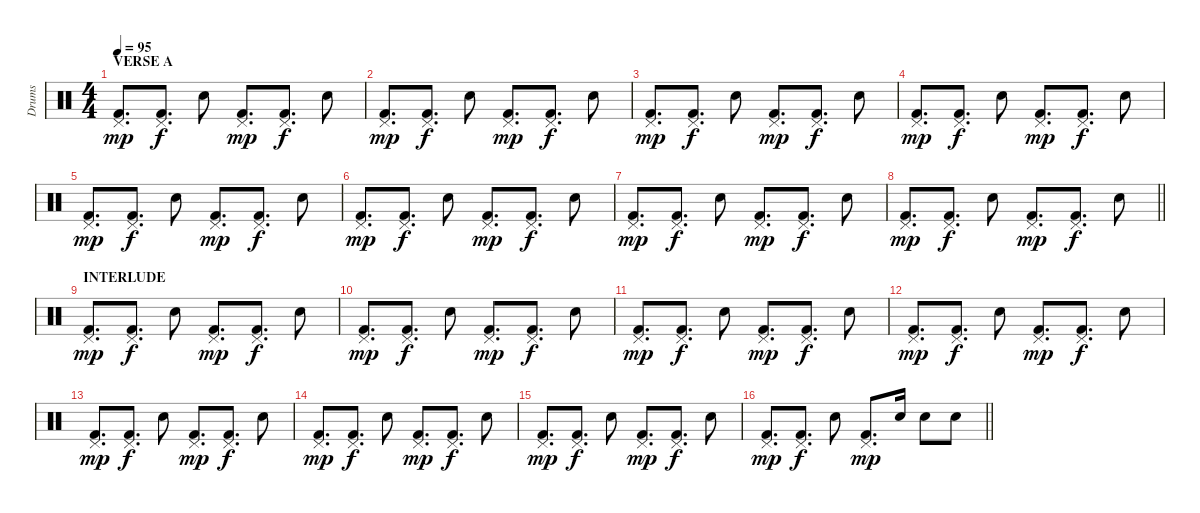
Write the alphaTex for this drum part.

\track ("Drums" "Drums") {instrument percussion}
\staff {score}
\articulation defaults
\ts (4 4)
\section ("" "VERSE A")
\tempo 95
\clef neutral
\ks c
("Pedal Hi-Hat (hit)" "Kick (hit) 2").8{d dy mp} ("Pedal Hi-Hat (hit)" "Kick (hit) 2").8{d dy f} "Snare (hit) 2".8 ("Pedal Hi-Hat (hit)" "Kick (hit) 2").8{d dy mp} ("Pedal Hi-Hat (hit)" "Kick (hit) 2").8{d dy f} "Snare (hit) 2".8 |
("Pedal Hi-Hat (hit)" "Kick (hit) 2").8{d dy mp} ("Pedal Hi-Hat (hit)" "Kick (hit) 2").8{d dy f} "Snare (hit) 2".8 ("Pedal Hi-Hat (hit)" "Kick (hit) 2").8{d dy mp} ("Pedal Hi-Hat (hit)" "Kick (hit) 2").8{d dy f} "Snare (hit) 2".8 |
("Pedal Hi-Hat (hit)" "Kick (hit) 2").8{d dy mp} ("Pedal Hi-Hat (hit)" "Kick (hit) 2").8{d dy f} "Snare (hit) 2".8 ("Pedal Hi-Hat (hit)" "Kick (hit) 2").8{d dy mp} ("Pedal Hi-Hat (hit)" "Kick (hit) 2").8{d dy f} "Snare (hit) 2".8 |
("Pedal Hi-Hat (hit)" "Kick (hit) 2").8{d dy mp} ("Pedal Hi-Hat (hit)" "Kick (hit) 2").8{d dy f} "Snare (hit) 2".8 ("Pedal Hi-Hat (hit)" "Kick (hit) 2").8{d dy mp} ("Pedal Hi-Hat (hit)" "Kick (hit) 2").8{d dy f} "Snare (hit) 2".8 |
("Pedal Hi-Hat (hit)" "Kick (hit) 2").8{d dy mp} ("Pedal Hi-Hat (hit)" "Kick (hit) 2").8{d dy f} "Snare (hit) 2".8 ("Pedal Hi-Hat (hit)" "Kick (hit) 2").8{d dy mp} ("Pedal Hi-Hat (hit)" "Kick (hit) 2").8{d dy f} "Snare (hit) 2".8 |
("Pedal Hi-Hat (hit)" "Kick (hit) 2").8{d dy mp} ("Pedal Hi-Hat (hit)" "Kick (hit) 2").8{d dy f} "Snare (hit) 2".8 ("Pedal Hi-Hat (hit)" "Kick (hit) 2").8{d dy mp} ("Pedal Hi-Hat (hit)" "Kick (hit) 2").8{d dy f} "Snare (hit) 2".8 |
("Pedal Hi-Hat (hit)" "Kick (hit) 2").8{d dy mp} ("Pedal Hi-Hat (hit)" "Kick (hit) 2").8{d dy f} "Snare (hit) 2".8 ("Pedal Hi-Hat (hit)" "Kick (hit) 2").8{d dy mp} ("Pedal Hi-Hat (hit)" "Kick (hit) 2").8{d dy f} "Snare (hit) 2".8 |
\barLineRight lightlight
("Pedal Hi-Hat (hit)" "Kick (hit) 2").8{d dy mp} ("Pedal Hi-Hat (hit)" "Kick (hit) 2").8{d dy f} "Snare (hit) 2".8 ("Pedal Hi-Hat (hit)" "Kick (hit) 2").8{d dy mp} ("Pedal Hi-Hat (hit)" "Kick (hit) 2").8{d dy f} "Snare (hit) 2".8 |
\section ("" "INTERLUDE")
("Pedal Hi-Hat (hit)" "Kick (hit) 2").8{d dy mp} ("Pedal Hi-Hat (hit)" "Kick (hit) 2").8{d dy f} "Snare (hit) 2".8 ("Pedal Hi-Hat (hit)" "Kick (hit) 2").8{d dy mp} ("Pedal Hi-Hat (hit)" "Kick (hit) 2").8{d dy f} "Snare (hit) 2".8 |
("Pedal Hi-Hat (hit)" "Kick (hit) 2").8{d dy mp} ("Pedal Hi-Hat (hit)" "Kick (hit) 2").8{d dy f} "Snare (hit) 2".8 ("Pedal Hi-Hat (hit)" "Kick (hit) 2").8{d dy mp} ("Pedal Hi-Hat (hit)" "Kick (hit) 2").8{d dy f} "Snare (hit) 2".8 |
("Pedal Hi-Hat (hit)" "Kick (hit) 2").8{d dy mp} ("Pedal Hi-Hat (hit)" "Kick (hit) 2").8{d dy f} "Snare (hit) 2".8 ("Pedal Hi-Hat (hit)" "Kick (hit) 2").8{d dy mp} ("Pedal Hi-Hat (hit)" "Kick (hit) 2").8{d dy f} "Snare (hit) 2".8 |
("Pedal Hi-Hat (hit)" "Kick (hit) 2").8{d dy mp} ("Pedal Hi-Hat (hit)" "Kick (hit) 2").8{d dy f} "Snare (hit) 2".8 ("Pedal Hi-Hat (hit)" "Kick (hit) 2").8{d dy mp} ("Pedal Hi-Hat (hit)" "Kick (hit) 2").8{d dy f} "Snare (hit) 2".8 |
("Pedal Hi-Hat (hit)" "Kick (hit) 2").8{d dy mp} ("Pedal Hi-Hat (hit)" "Kick (hit) 2").8{d dy f} "Snare (hit) 2".8 ("Pedal Hi-Hat (hit)" "Kick (hit) 2").8{d dy mp} ("Pedal Hi-Hat (hit)" "Kick (hit) 2").8{d dy f} "Snare (hit) 2".8 |
("Pedal Hi-Hat (hit)" "Kick (hit) 2").8{d dy mp} ("Pedal Hi-Hat (hit)" "Kick (hit) 2").8{d dy f} "Snare (hit) 2".8 ("Pedal Hi-Hat (hit)" "Kick (hit) 2").8{d dy mp} ("Pedal Hi-Hat (hit)" "Kick (hit) 2").8{d dy f} "Snare (hit) 2".8 |
("Pedal Hi-Hat (hit)" "Kick (hit) 2").8{d dy mp} ("Pedal Hi-Hat (hit)" "Kick (hit) 2").8{d dy f} "Snare (hit) 2".8 ("Pedal Hi-Hat (hit)" "Kick (hit) 2").8{d dy mp} ("Pedal Hi-Hat (hit)" "Kick (hit) 2").8{d dy f} "Snare (hit) 2".8 |
\barLineRight lightlight
("Pedal Hi-Hat (hit)" "Kick (hit) 2").8{d dy mp} ("Pedal Hi-Hat (hit)" "Kick (hit) 2").8{d dy f} "Snare (hit) 2".8 ("Pedal Hi-Hat (hit)" "Kick (hit) 2").8{d dy mp} "Snare (hit) 2".16 "Snare (hit) 2".8 "Snare (hit) 2".8
